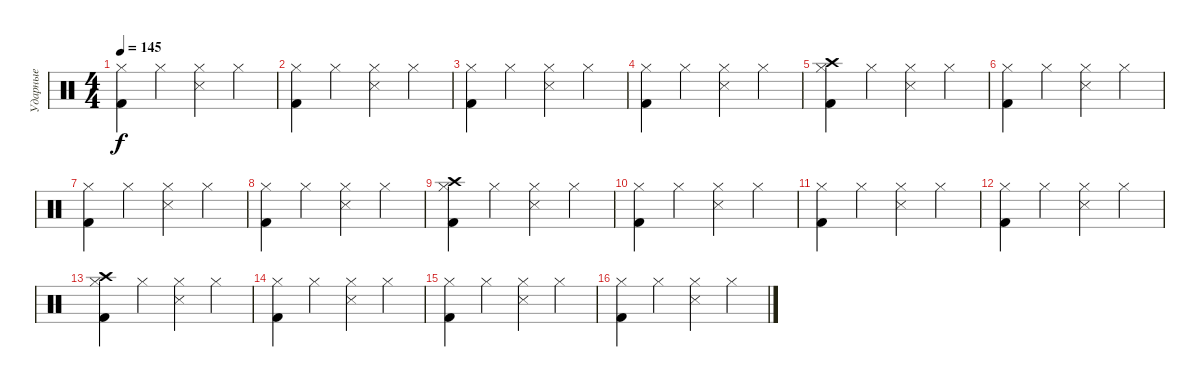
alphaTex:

\track ("Ударные" "Ударные") {instrument percussion}
\staff {score}
\articulation defaults
\ts (4 4)
\tempo 145
\clef neutral
\ks c
("Hi-Hat (closed)" "Kick (hit) 2").4{dy f} "Hi-Hat (closed)".4 ("Snare (side stick) 3" "Hi-Hat (closed)").4 "Hi-Hat (closed)".4 |
("Kick (hit) 2" "Hi-Hat (closed)").4 "Hi-Hat (closed)".4 ("Snare (side stick) 3" "Hi-Hat (closed)").4 "Hi-Hat (closed)".4 |
("Kick (hit) 2" "Hi-Hat (closed)").4 "Hi-Hat (closed)".4 ("Snare (side stick) 3" "Hi-Hat (closed)").4 "Hi-Hat (closed)".4 |
("Hi-Hat (closed)" "Kick (hit) 2").4 "Hi-Hat (closed)".4 ("Snare (side stick) 3" "Hi-Hat (closed)").4 "Hi-Hat (closed)".4 |
("Crash high (hit)" "Hi-Hat (closed)" "Kick (hit) 2").4 "Hi-Hat (closed)".4 ("Hi-Hat (closed)" "Snare (side stick) 3").4 "Hi-Hat (closed)".4 |
("Kick (hit) 2" "Hi-Hat (closed)").4 "Hi-Hat (closed)".4 ("Snare (side stick) 3" "Hi-Hat (closed)").4 "Hi-Hat (closed)".4 |
("Kick (hit) 2" "Hi-Hat (closed)").4 "Hi-Hat (closed)".4 ("Snare (side stick) 3" "Hi-Hat (closed)").4 "Hi-Hat (closed)".4 |
("Kick (hit) 2" "Hi-Hat (closed)").4 "Hi-Hat (closed)".4 ("Snare (side stick) 3" "Hi-Hat (closed)").4 "Hi-Hat (closed)".4 |
("Crash high (hit)" "Hi-Hat (closed)" "Kick (hit) 2").4 "Hi-Hat (closed)".4 ("Snare (side stick) 3" "Hi-Hat (closed)").4 "Hi-Hat (closed)".4 |
("Kick (hit) 2" "Hi-Hat (closed)").4 "Hi-Hat (closed)".4 ("Snare (side stick) 3" "Hi-Hat (closed)").4 "Hi-Hat (closed)".4 |
("Kick (hit) 2" "Hi-Hat (closed)").4 "Hi-Hat (closed)".4 ("Snare (side stick) 3" "Hi-Hat (closed)").4 "Hi-Hat (closed)".4 |
("Hi-Hat (closed)" "Kick (hit) 2").4 "Hi-Hat (closed)".4 ("Hi-Hat (closed)" "Snare (side stick) 3").4 "Hi-Hat (closed)".4 |
("Crash high (hit)" "Kick (hit) 2" "Hi-Hat (closed)").4 "Hi-Hat (closed)".4 ("Hi-Hat (closed)" "Snare (side stick) 3").4 "Hi-Hat (closed)".4 |
("Kick (hit) 2" "Hi-Hat (closed)").4 "Hi-Hat (closed)".4 ("Hi-Hat (closed)" "Snare (side stick) 3").4 "Hi-Hat (closed)".4 |
("Kick (hit) 2" "Hi-Hat (closed)").4 "Hi-Hat (closed)".4 ("Snare (side stick) 3" "Hi-Hat (closed)").4 "Hi-Hat (closed)".4 |
("Hi-Hat (closed)" "Kick (hit) 2").4 "Hi-Hat (closed)".4 ("Hi-Hat (closed)" "Snare (side stick) 3").4 "Hi-Hat (closed)".4
